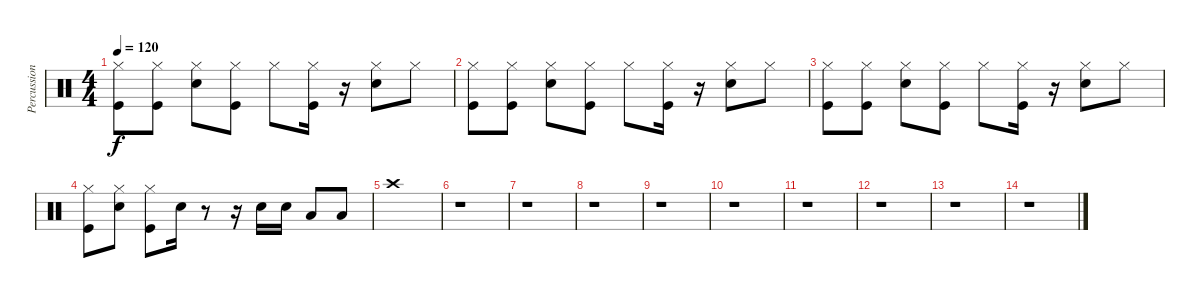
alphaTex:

\track ("Percussion" "Percussion") {instrument percussion}
\staff {score}
\articulation defaults
\ts (4 4)
\tempo 120
\clef neutral
\ks c
("Hi-Hat (closed)" "Kick (hit)").8{dy f} ("Hi-Hat (closed)" "Kick (hit)").8 ("Hi-Hat (closed)" "Electric Snare (hit)").8 ("Hi-Hat (closed)" "Kick (hit)").8 "Hi-Hat (closed)".8 ("Hi-Hat (closed)" "Kick (hit)").16 r.16 ("Hi-Hat (closed)" "Electric Snare (hit)").8 "Hi-Hat (closed)".8 |
("Hi-Hat (closed)" "Kick (hit)").8 ("Hi-Hat (closed)" "Kick (hit)").8 ("Hi-Hat (closed)" "Electric Snare (hit)").8 ("Hi-Hat (closed)" "Kick (hit)").8 "Hi-Hat (closed)".8 ("Hi-Hat (closed)" "Kick (hit)").16 r.16 ("Hi-Hat (closed)" "Electric Snare (hit)").8 "Hi-Hat (closed)".8 |
("Hi-Hat (closed)" "Kick (hit)").8 ("Hi-Hat (closed)" "Kick (hit)").8 ("Hi-Hat (closed)" "Electric Snare (hit)").8 ("Hi-Hat (closed)" "Kick (hit)").8 "Hi-Hat (closed)".8 ("Hi-Hat (closed)" "Kick (hit)").16 r.16 ("Hi-Hat (closed)" "Electric Snare (hit)").8 "Hi-Hat (closed)".8 |
("Hi-Hat (closed)" "Kick (hit)").8 ("Hi-Hat (closed)" "Electric Snare (hit)").8 ("Hi-Hat (closed)" "Kick (hit)").8 "Electric Snare (hit)".16 r.8 r.16 "Electric Snare (hit)".16 "Electric Snare (hit)".16 "Low Tom (hit)".8 "Low Tom (hit)".8 |
"Crash high (hit)".1 |
r.1 |
r.1 |
r.1 |
r.1 |
r.1 |
r.1 |
r.1 |
r.1 |
r.1
